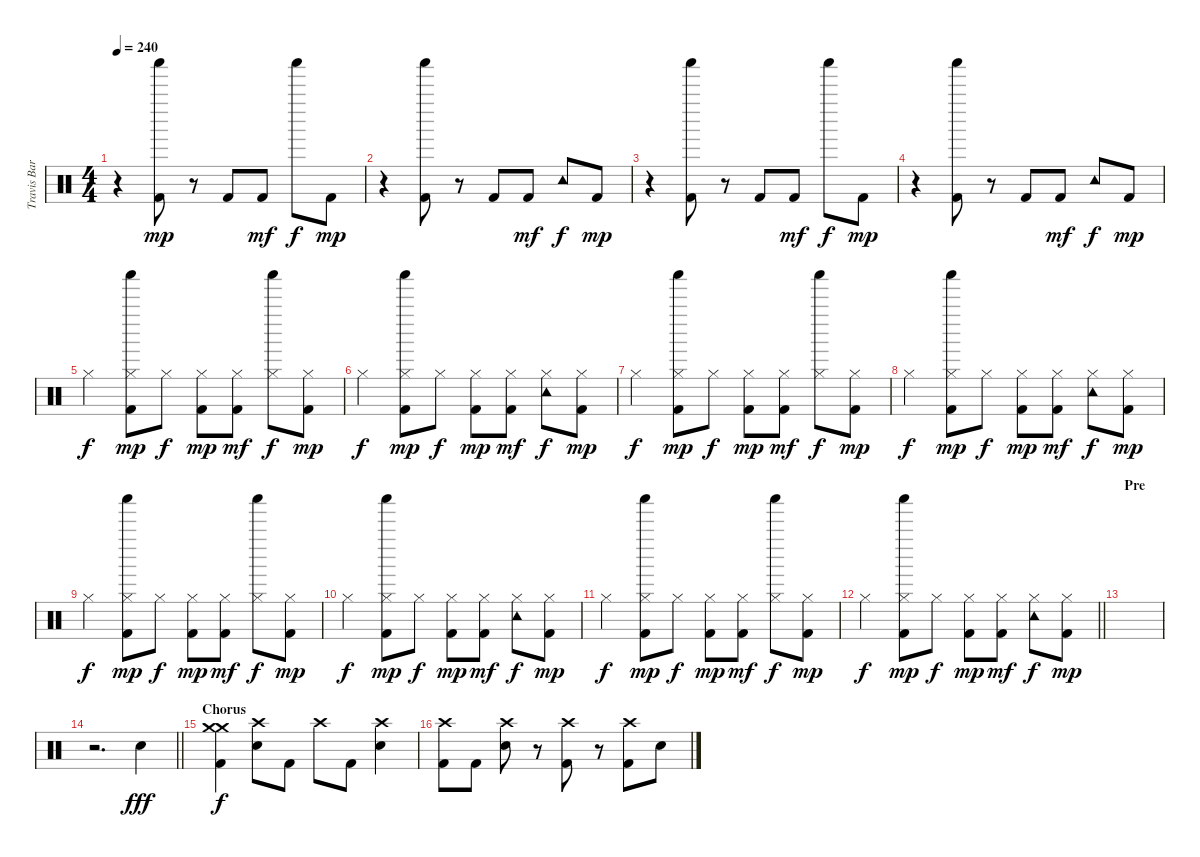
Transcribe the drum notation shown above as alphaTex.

\track ("Travis Barker - Drums" "Travis Bar") {instrument percussion}
\staff {score}
\articulation defaults
\ts (4 4)
\tempo 240
\clef neutral
\ks c
r.4{dy mp} ("Shaker (hit)" "Kick (hit) 2").8 r.8 "Kick (hit) 2".8 "Kick (hit) 2".8{dy mf} "Shaker (hit)".8{dy f} "Kick (hit) 2".8{dy mp} |
r.4 ("Shaker (hit)" "Kick (hit) 2").8 r.8 "Kick (hit) 2".8 "Kick (hit) 2".8{dy mf} "Tambourine (hit)".8{dy f} "Kick (hit) 2".8{dy mp} |
r.4 ("Shaker (hit)" "Kick (hit) 2").8 r.8 "Kick (hit) 2".8 "Kick (hit) 2".8{dy mf} "Shaker (hit)".8{dy f} "Kick (hit) 2".8{dy mp} |
r.4 ("Shaker (hit)" "Kick (hit) 2").8 r.8 "Kick (hit) 2".8 "Kick (hit) 2".8{dy mf} "Tambourine (hit)".8{dy f} "Kick (hit) 2".8{dy mp} |
"Hi-Hat (closed)".4{dy f} ("Hi-Hat (closed)" "Shaker (hit)" "Kick (hit) 2").8{dy mp} "Hi-Hat (closed)".8{dy f} ("Hi-Hat (closed)" "Kick (hit) 2").8{dy mp} ("Hi-Hat (closed)" "Kick (hit) 2").8{dy mf} ("Hi-Hat (closed)" "Shaker (hit)").8{dy f} ("Hi-Hat (closed)" "Kick (hit) 2").8{dy mp} |
"Hi-Hat (closed)".4{dy f} ("Hi-Hat (closed)" "Shaker (hit)" "Kick (hit) 2").8{dy mp} "Hi-Hat (closed)".8{dy f} ("Hi-Hat (closed)" "Kick (hit) 2").8{dy mp} ("Hi-Hat (closed)" "Kick (hit) 2").8{dy mf} ("Hi-Hat (closed)" "Tambourine (hit)").8{dy f} ("Hi-Hat (closed)" "Kick (hit) 2").8{dy mp} |
"Hi-Hat (closed)".4{dy f} ("Hi-Hat (closed)" "Shaker (hit)" "Kick (hit) 2").8{dy mp} "Hi-Hat (closed)".8{dy f} ("Hi-Hat (closed)" "Kick (hit) 2").8{dy mp} ("Hi-Hat (closed)" "Kick (hit) 2").8{dy mf} ("Hi-Hat (closed)" "Shaker (hit)").8{dy f} ("Hi-Hat (closed)" "Kick (hit) 2").8{dy mp} |
"Hi-Hat (closed)".4{dy f} ("Hi-Hat (closed)" "Shaker (hit)" "Kick (hit) 2").8{dy mp} "Hi-Hat (closed)".8{dy f} ("Hi-Hat (closed)" "Kick (hit) 2").8{dy mp} ("Hi-Hat (closed)" "Kick (hit) 2").8{dy mf} ("Hi-Hat (closed)" "Tambourine (hit)").8{dy f} ("Hi-Hat (closed)" "Kick (hit) 2").8{dy mp} |
"Hi-Hat (closed)".4{dy f} ("Hi-Hat (closed)" "Shaker (hit)" "Kick (hit) 2").8{dy mp} "Hi-Hat (closed)".8{dy f} ("Hi-Hat (closed)" "Kick (hit) 2").8{dy mp} ("Hi-Hat (closed)" "Kick (hit) 2").8{dy mf} ("Hi-Hat (closed)" "Shaker (hit)").8{dy f} ("Hi-Hat (closed)" "Kick (hit) 2").8{dy mp} |
"Hi-Hat (closed)".4{dy f} ("Hi-Hat (closed)" "Shaker (hit)" "Kick (hit) 2").8{dy mp} "Hi-Hat (closed)".8{dy f} ("Hi-Hat (closed)" "Kick (hit) 2").8{dy mp} ("Hi-Hat (closed)" "Kick (hit) 2").8{dy mf} ("Hi-Hat (closed)" "Tambourine (hit)").8{dy f} ("Hi-Hat (closed)" "Kick (hit) 2").8{dy mp} |
"Hi-Hat (closed)".4{dy f} ("Hi-Hat (closed)" "Shaker (hit)" "Kick (hit) 2").8{dy mp} "Hi-Hat (closed)".8{dy f} ("Hi-Hat (closed)" "Kick (hit) 2").8{dy mp} ("Hi-Hat (closed)" "Kick (hit) 2").8{dy mf} ("Hi-Hat (closed)" "Shaker (hit)").8{dy f} ("Hi-Hat (closed)" "Kick (hit) 2").8{dy mp} |
\barLineRight lightlight "Hi-Hat (closed)".4{dy f}
("Hi-Hat (closed)" "Shaker (hit)" "Kick (hit) 2").8{dy mp} "Hi-Hat (closed)".8{dy f} ("Hi-Hat (closed)" "Kick (hit) 2").8{dy mp} ("Hi-Hat (closed)" "Kick (hit) 2").8{dy mf} ("Hi-Hat (closed)" "Tambourine (hit)").8{dy f} ("Hi-Hat (closed)" "Kick (hit) 2").8{dy mp} |
\section ("" "Pre")
|
\barLineRight lightlight
r.2{d} "Electric Snare (hit)".4{dy fff} |
\section ("" "Chorus")
("Crash medium (hit)" "Crash medium (hit)" "Kick (hit) 2").4{dy f} ("Crash high (hit)" "Electric Snare (hit)").8 "Kick (hit) 2".8 "Crash high (hit)".8 "Kick (hit) 2".8 ("Crash high (hit)" "Electric Snare (hit)").4 |
("Crash high (hit)" "Kick (hit) 2").8 "Kick (hit) 2".8 ("Crash high (hit)" "Electric Snare (hit)").8 r.8 ("Crash high (hit)" "Kick (hit) 2").8 r.8 ("Crash high (hit)" "Kick (hit) 2").8 "Electric Snare (hit)".8
